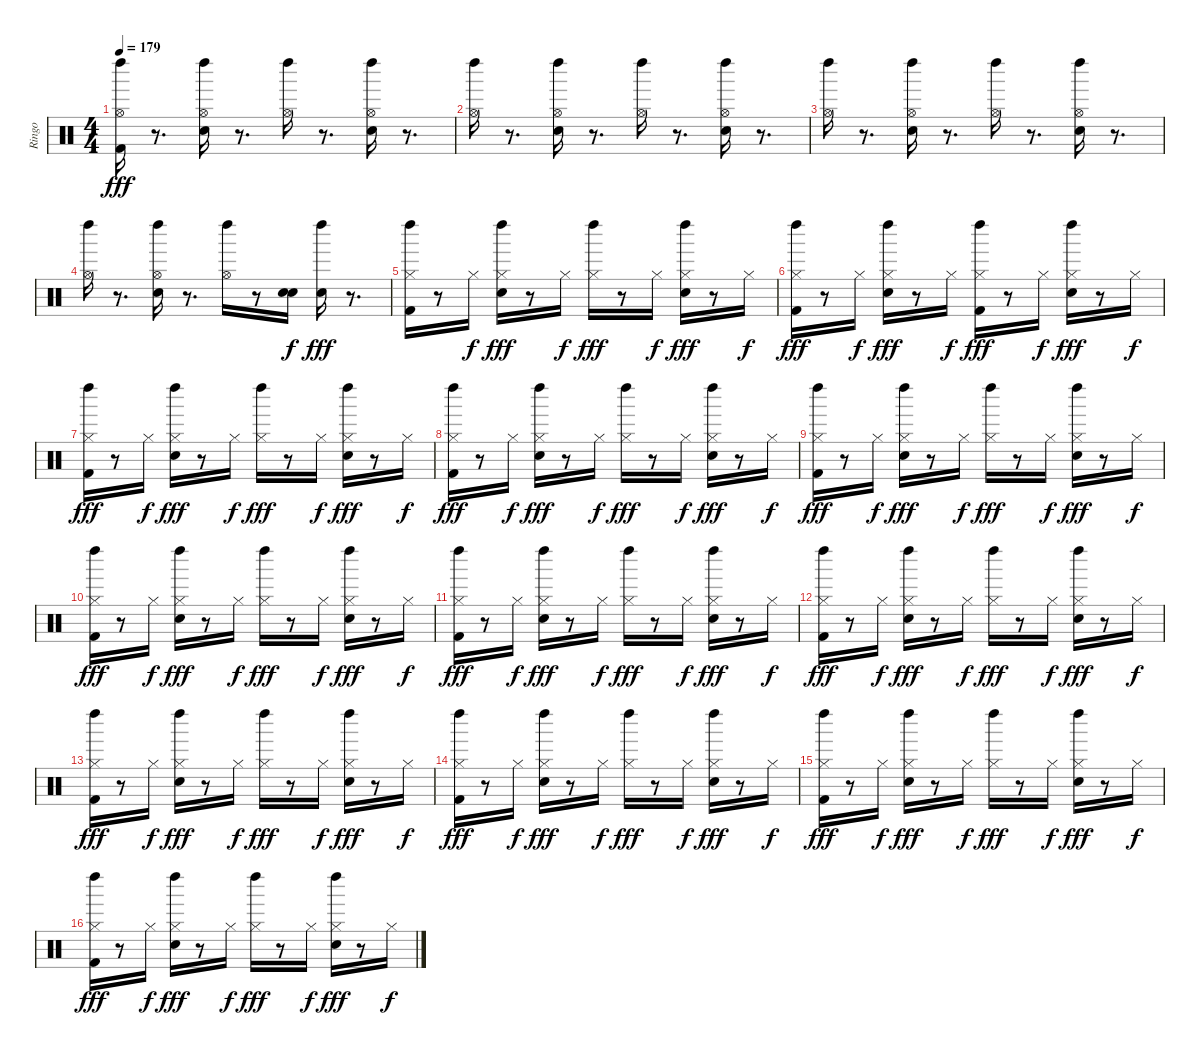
\track ("Ringo" "Ringo") {instrument percussion}
\staff {score}
\articulation defaults
\ts (4 4)
\tempo 179
\clef neutral
\ks c
("Kick (hit) 2" "Hi-Hat (open)" "Left Maraca (hit)").16{dy fff} r.8{d} ("Snare (hit) 2" "Hi-Hat (open)" "Left Maraca (hit)").16 r.8{d} ("Hi-Hat (open)" "Left Maraca (hit)").16 r.8{d} ("Snare (hit) 2" "Hi-Hat (open)" "Left Maraca (hit)").16 r.8{d} |
("Hi-Hat (open)" "Left Maraca (hit)").16 r.8{d} ("Snare (hit) 2" "Hi-Hat (open)" "Left Maraca (hit)").16 r.8{d} ("Hi-Hat (open)" "Left Maraca (hit)").16 r.8{d} ("Snare (hit) 2" "Hi-Hat (open)" "Left Maraca (hit)").16 r.8{d} |
("Hi-Hat (open)" "Left Maraca (hit)").16 r.8{d} ("Snare (hit) 2" "Hi-Hat (open)" "Left Maraca (hit)").16 r.8{d} ("Hi-Hat (open)" "Left Maraca (hit)").16 r.8{d} ("Snare (hit) 2" "Hi-Hat (open)" "Left Maraca (hit)").16 r.8{d} |
("Hi-Hat (open)" "Left Maraca (hit)").16 r.8{d} ("Snare (hit) 2" "Hi-Hat (open)" "Left Maraca (hit)").16 r.8{d} ("Hi-Hat (open)" "Left Maraca (hit)").16 r.8 ("Snare (hit) 2" "Snare (hit) 2").16{dy f} ("Snare (hit) 2" "Left Maraca (hit)").16{dy fff} r.8{d} |
("Hi-Hat (closed)" "Kick (hit) 2" "Left Maraca (hit)").16 r.8 "Hi-Hat (closed)".16{dy f} ("Hi-Hat (closed)" "Snare (hit) 2" "Left Maraca (hit)").16{dy fff} r.8 "Hi-Hat (closed)".16{dy f} ("Hi-Hat (closed)" "Left Maraca (hit)").16{dy fff} r.8 "Hi-Hat (closed)".16{dy f} ("Hi-Hat (closed)" "Snare (hit) 2" "Left Maraca (hit)").16{dy fff} r.8 "Hi-Hat (closed)".16{dy f} |
("Hi-Hat (closed)" "Kick (hit) 2" "Left Maraca (hit)").16{dy fff} r.8 "Hi-Hat (closed)".16{dy f} ("Hi-Hat (closed)" "Snare (hit) 2" "Left Maraca (hit)").16{dy fff} r.8 "Hi-Hat (closed)".16{dy f} ("Hi-Hat (closed)" "Kick (hit) 2" "Left Maraca (hit)").16{dy fff} r.8 "Hi-Hat (closed)".16{dy f} ("Hi-Hat (closed)" "Snare (hit) 2" "Left Maraca (hit)").16{dy fff} r.8 "Hi-Hat (closed)".16{dy f} |
("Hi-Hat (closed)" "Kick (hit) 2" "Left Maraca (hit)").16{dy fff} r.8 "Hi-Hat (closed)".16{dy f} ("Hi-Hat (closed)" "Snare (hit) 2" "Left Maraca (hit)").16{dy fff} r.8 "Hi-Hat (closed)".16{dy f} ("Hi-Hat (closed)" "Left Maraca (hit)").16{dy fff} r.8 "Hi-Hat (closed)".16{dy f} ("Hi-Hat (closed)" "Snare (hit) 2" "Left Maraca (hit)").16{dy fff} r.8 "Hi-Hat (closed)".16{dy f} |
("Hi-Hat (closed)" "Kick (hit) 2" "Left Maraca (hit)").16{dy fff} r.8 "Hi-Hat (closed)".16{dy f} ("Hi-Hat (closed)" "Snare (hit) 2" "Left Maraca (hit)").16{dy fff} r.8 "Hi-Hat (closed)".16{dy f} ("Hi-Hat (closed)" "Left Maraca (hit)").16{dy fff} r.8 "Hi-Hat (closed)".16{dy f} ("Hi-Hat (closed)" "Snare (hit) 2" "Left Maraca (hit)").16{dy fff} r.8 "Hi-Hat (closed)".16{dy f} |
("Hi-Hat (closed)" "Kick (hit) 2" "Left Maraca (hit)").16{dy fff} r.8 "Hi-Hat (closed)".16{dy f} ("Hi-Hat (closed)" "Snare (hit) 2" "Left Maraca (hit)").16{dy fff} r.8 "Hi-Hat (closed)".16{dy f} ("Hi-Hat (closed)" "Left Maraca (hit)").16{dy fff} r.8 "Hi-Hat (closed)".16{dy f} ("Hi-Hat (closed)" "Snare (hit) 2" "Left Maraca (hit)").16{dy fff} r.8 "Hi-Hat (closed)".16{dy f} |
("Hi-Hat (closed)" "Kick (hit) 2" "Left Maraca (hit)").16{dy fff} r.8 "Hi-Hat (closed)".16{dy f} ("Hi-Hat (closed)" "Snare (hit) 2" "Left Maraca (hit)").16{dy fff} r.8 "Hi-Hat (closed)".16{dy f} ("Hi-Hat (closed)" "Left Maraca (hit)").16{dy fff} r.8 "Hi-Hat (closed)".16{dy f} ("Hi-Hat (closed)" "Snare (hit) 2" "Left Maraca (hit)").16{dy fff} r.8 "Hi-Hat (closed)".16{dy f} |
("Hi-Hat (closed)" "Kick (hit) 2" "Left Maraca (hit)").16{dy fff} r.8 "Hi-Hat (closed)".16{dy f} ("Hi-Hat (closed)" "Snare (hit) 2" "Left Maraca (hit)").16{dy fff} r.8 "Hi-Hat (closed)".16{dy f} ("Hi-Hat (closed)" "Left Maraca (hit)").16{dy fff} r.8 "Hi-Hat (closed)".16{dy f} ("Hi-Hat (closed)" "Snare (hit) 2" "Left Maraca (hit)").16{dy fff} r.8 "Hi-Hat (closed)".16{dy f} |
("Hi-Hat (closed)" "Kick (hit) 2" "Left Maraca (hit)").16{dy fff} r.8 "Hi-Hat (closed)".16{dy f} ("Hi-Hat (closed)" "Snare (hit) 2" "Left Maraca (hit)").16{dy fff} r.8 "Hi-Hat (closed)".16{dy f} ("Hi-Hat (closed)" "Left Maraca (hit)").16{dy fff} r.8 "Hi-Hat (closed)".16{dy f} ("Hi-Hat (closed)" "Snare (hit) 2" "Left Maraca (hit)").16{dy fff} r.8 "Hi-Hat (closed)".16{dy f} |
("Hi-Hat (closed)" "Kick (hit) 2" "Left Maraca (hit)").16{dy fff} r.8 "Hi-Hat (closed)".16{dy f} ("Hi-Hat (closed)" "Snare (hit) 2" "Left Maraca (hit)").16{dy fff} r.8 "Hi-Hat (closed)".16{dy f} ("Hi-Hat (closed)" "Left Maraca (hit)").16{dy fff} r.8 "Hi-Hat (closed)".16{dy f} ("Hi-Hat (closed)" "Snare (hit) 2" "Left Maraca (hit)").16{dy fff} r.8 "Hi-Hat (closed)".16{dy f} |
("Hi-Hat (closed)" "Kick (hit) 2" "Left Maraca (hit)").16{dy fff} r.8 "Hi-Hat (closed)".16{dy f} ("Hi-Hat (closed)" "Snare (hit) 2" "Left Maraca (hit)").16{dy fff} r.8 "Hi-Hat (closed)".16{dy f} ("Hi-Hat (closed)" "Left Maraca (hit)").16{dy fff} r.8 "Hi-Hat (closed)".16{dy f} ("Hi-Hat (closed)" "Snare (hit) 2" "Left Maraca (hit)").16{dy fff} r.8 "Hi-Hat (closed)".16{dy f} |
("Hi-Hat (closed)" "Kick (hit) 2" "Left Maraca (hit)").16{dy fff} r.8 "Hi-Hat (closed)".16{dy f} ("Hi-Hat (closed)" "Snare (hit) 2" "Left Maraca (hit)").16{dy fff} r.8 "Hi-Hat (closed)".16{dy f} ("Hi-Hat (closed)" "Left Maraca (hit)").16{dy fff} r.8 "Hi-Hat (closed)".16{dy f} ("Hi-Hat (closed)" "Snare (hit) 2" "Left Maraca (hit)").16{dy fff} r.8 "Hi-Hat (closed)".16{dy f} |
("Hi-Hat (closed)" "Kick (hit) 2" "Left Maraca (hit)").16{dy fff} r.8 "Hi-Hat (closed)".16{dy f} ("Hi-Hat (closed)" "Snare (hit) 2" "Left Maraca (hit)").16{dy fff} r.8 "Hi-Hat (closed)".16{dy f} ("Hi-Hat (closed)" "Left Maraca (hit)").16{dy fff} r.8 "Hi-Hat (closed)".16{dy f} ("Hi-Hat (closed)" "Snare (hit) 2" "Left Maraca (hit)").16{dy fff} r.8 "Hi-Hat (closed)".16{dy f}
